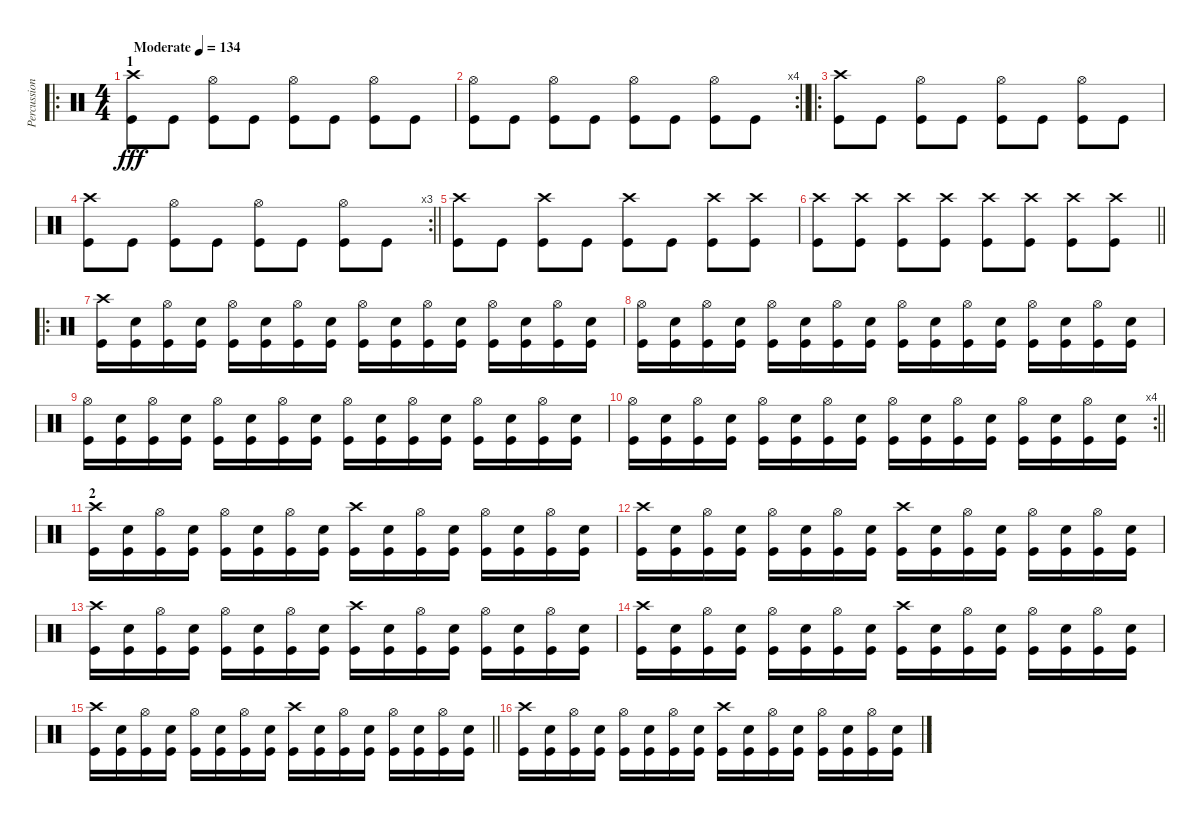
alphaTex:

\track ("Percussion" "Percussion") {instrument percussion}
\staff {score}
\articulation defaults
\ro
\ts (4 4)
\section ("" "1")
\tempo (134 "Moderate")
\clef neutral
\ks c
("Crash high (hit)" "Kick (hit)").8{dy fff} "Kick (hit)".8 ("Hi-Hat (open)" "Kick (hit)").8 "Kick (hit)".8 ("Hi-Hat (open)" "Kick (hit)").8 "Kick (hit)".8 ("Hi-Hat (open)" "Kick (hit)").8 "Kick (hit)".8 |
\rc 4
\barLineRight lightlight
("Hi-Hat (open)" "Kick (hit)").8 "Kick (hit)".8 ("Hi-Hat (open)" "Kick (hit)").8 "Kick (hit)".8 ("Hi-Hat (open)" "Kick (hit)").8 "Kick (hit)".8 ("Hi-Hat (open)" "Kick (hit)").8 "Kick (hit)".8 |
\ro
\section ("" "")
("Crash high (hit)" "Kick (hit)").8 "Kick (hit)".8 ("Hi-Hat (open)" "Kick (hit)").8 "Kick (hit)".8 ("Hi-Hat (open)" "Kick (hit)").8 "Kick (hit)".8 ("Hi-Hat (open)" "Kick (hit)").8 "Kick (hit)".8 |
\rc 3
\barLineRight lightlight
("Crash high (hit)" "Kick (hit)").8 "Kick (hit)".8 ("Hi-Hat (open)" "Kick (hit)").8 "Kick (hit)".8 ("Hi-Hat (open)" "Kick (hit)").8 "Kick (hit)".8 ("Hi-Hat (open)" "Kick (hit)").8 "Kick (hit)".8 |
("Crash high (hit)" "Kick (hit)").8 "Kick (hit)".8 ("Crash high (hit)" "Kick (hit)").8 "Kick (hit)".8 ("Crash high (hit)" "Kick (hit)").8 "Kick (hit)".8 ("Crash high (hit)" "Kick (hit)").8 ("Crash high (hit)" "Kick (hit)").8 |
\barLineRight lightlight
("Crash high (hit)" "Kick (hit)").8 ("Crash high (hit)" "Kick (hit)").8 ("Crash high (hit)" "Kick (hit)").8 ("Crash high (hit)" "Kick (hit)").8 ("Crash high (hit)" "Kick (hit)").8 ("Crash high (hit)" "Kick (hit)").8 ("Crash high (hit)" "Kick (hit)").8 ("Crash high (hit)" "Kick (hit)").8 |
\ro
\section ("" "")
("Crash high (hit)" "Kick (hit)").16 ("Snare (hit) 2" "Kick (hit)").16 ("Hi-Hat (open)" "Kick (hit)").16 ("Snare (hit) 2" "Kick (hit)").16 ("Hi-Hat (open)" "Kick (hit)").16 ("Snare (hit) 2" "Kick (hit)").16 ("Hi-Hat (open)" "Kick (hit)").16 ("Snare (hit) 2" "Kick (hit)").16 ("Hi-Hat (open)" "Kick (hit)").16 ("Snare (hit) 2" "Kick (hit)").16 ("Hi-Hat (open)" "Kick (hit)").16 ("Snare (hit) 2" "Kick (hit)").16 ("Hi-Hat (open)" "Kick (hit)").16 ("Snare (hit) 2" "Kick (hit)").16 ("Hi-Hat (open)" "Kick (hit)").16 ("Snare (hit) 2" "Kick (hit)").16 |
("Hi-Hat (open)" "Kick (hit)").16 ("Snare (hit) 2" "Kick (hit)").16 ("Hi-Hat (open)" "Kick (hit)").16 ("Snare (hit) 2" "Kick (hit)").16 ("Hi-Hat (open)" "Kick (hit)").16 ("Snare (hit) 2" "Kick (hit)").16 ("Hi-Hat (open)" "Kick (hit)").16 ("Snare (hit) 2" "Kick (hit)").16 ("Hi-Hat (open)" "Kick (hit)").16 ("Snare (hit) 2" "Kick (hit)").16 ("Hi-Hat (open)" "Kick (hit)").16 ("Snare (hit) 2" "Kick (hit)").16 ("Hi-Hat (open)" "Kick (hit)").16 ("Snare (hit) 2" "Kick (hit)").16 ("Hi-Hat (open)" "Kick (hit)").16 ("Snare (hit) 2" "Kick (hit)").16 |
("Hi-Hat (open)" "Kick (hit)").16 ("Snare (hit) 2" "Kick (hit)").16 ("Hi-Hat (open)" "Kick (hit)").16 ("Snare (hit) 2" "Kick (hit)").16 ("Hi-Hat (open)" "Kick (hit)").16 ("Snare (hit) 2" "Kick (hit)").16 ("Hi-Hat (open)" "Kick (hit)").16 ("Snare (hit) 2" "Kick (hit)").16 ("Hi-Hat (open)" "Kick (hit)").16 ("Snare (hit) 2" "Kick (hit)").16 ("Hi-Hat (open)" "Kick (hit)").16 ("Snare (hit) 2" "Kick (hit)").16 ("Hi-Hat (open)" "Kick (hit)").16 ("Snare (hit) 2" "Kick (hit)").16 ("Hi-Hat (open)" "Kick (hit)").16 ("Snare (hit) 2" "Kick (hit)").16 |
\rc 4
\barLineRight lightlight
("Hi-Hat (open)" "Kick (hit)").16 ("Snare (hit) 2" "Kick (hit)").16 ("Hi-Hat (open)" "Kick (hit)").16 ("Snare (hit) 2" "Kick (hit)").16 ("Hi-Hat (open)" "Kick (hit)").16 ("Snare (hit) 2" "Kick (hit)").16 ("Hi-Hat (open)" "Kick (hit)").16 ("Snare (hit) 2" "Kick (hit)").16 ("Hi-Hat (open)" "Kick (hit)").16 ("Snare (hit) 2" "Kick (hit)").16 ("Hi-Hat (open)" "Kick (hit)").16 ("Snare (hit) 2" "Kick (hit)").16 ("Hi-Hat (open)" "Kick (hit)").16 ("Snare (hit) 2" "Kick (hit)").16 ("Hi-Hat (open)" "Kick (hit)").16 ("Snare (hit) 2" "Kick (hit)").16 |
\section ("" "2")
("Crash high (hit)" "Kick (hit)").16 ("Snare (hit) 2" "Kick (hit)").16 ("Hi-Hat (open)" "Kick (hit)").16 ("Snare (hit) 2" "Kick (hit)").16 ("Hi-Hat (open)" "Kick (hit)").16 ("Snare (hit) 2" "Kick (hit)").16 ("Hi-Hat (open)" "Kick (hit)").16 ("Snare (hit) 2" "Kick (hit)").16 ("Crash high (hit)" "Kick (hit)").16 ("Snare (hit) 2" "Kick (hit)").16 ("Hi-Hat (open)" "Kick (hit)").16 ("Snare (hit) 2" "Kick (hit)").16 ("Hi-Hat (open)" "Kick (hit)").16 ("Snare (hit) 2" "Kick (hit)").16 ("Hi-Hat (open)" "Kick (hit)").16 ("Snare (hit) 2" "Kick (hit)").16 |
("Crash high (hit)" "Kick (hit)").16 ("Snare (hit) 2" "Kick (hit)").16 ("Hi-Hat (open)" "Kick (hit)").16 ("Snare (hit) 2" "Kick (hit)").16 ("Hi-Hat (open)" "Kick (hit)").16 ("Snare (hit) 2" "Kick (hit)").16 ("Hi-Hat (open)" "Kick (hit)").16 ("Snare (hit) 2" "Kick (hit)").16 ("Crash high (hit)" "Kick (hit)").16 ("Snare (hit) 2" "Kick (hit)").16 ("Hi-Hat (open)" "Kick (hit)").16 ("Snare (hit) 2" "Kick (hit)").16 ("Hi-Hat (open)" "Kick (hit)").16 ("Snare (hit) 2" "Kick (hit)").16 ("Hi-Hat (open)" "Kick (hit)").16 ("Snare (hit) 2" "Kick (hit)").16 |
("Crash high (hit)" "Kick (hit)").16 ("Snare (hit) 2" "Kick (hit)").16 ("Hi-Hat (open)" "Kick (hit)").16 ("Snare (hit) 2" "Kick (hit)").16 ("Hi-Hat (open)" "Kick (hit)").16 ("Snare (hit) 2" "Kick (hit)").16 ("Hi-Hat (open)" "Kick (hit)").16 ("Snare (hit) 2" "Kick (hit)").16 ("Crash high (hit)" "Kick (hit)").16 ("Snare (hit) 2" "Kick (hit)").16 ("Hi-Hat (open)" "Kick (hit)").16 ("Snare (hit) 2" "Kick (hit)").16 ("Hi-Hat (open)" "Kick (hit)").16 ("Snare (hit) 2" "Kick (hit)").16 ("Hi-Hat (open)" "Kick (hit)").16 ("Snare (hit) 2" "Kick (hit)").16 |
("Crash high (hit)" "Kick (hit)").16 ("Snare (hit) 2" "Kick (hit)").16 ("Hi-Hat (open)" "Kick (hit)").16 ("Snare (hit) 2" "Kick (hit)").16 ("Hi-Hat (open)" "Kick (hit)").16 ("Snare (hit) 2" "Kick (hit)").16 ("Hi-Hat (open)" "Kick (hit)").16 ("Snare (hit) 2" "Kick (hit)").16 ("Crash high (hit)" "Kick (hit)").16 ("Snare (hit) 2" "Kick (hit)").16 ("Hi-Hat (open)" "Kick (hit)").16 ("Snare (hit) 2" "Kick (hit)").16 ("Hi-Hat (open)" "Kick (hit)").16 ("Snare (hit) 2" "Kick (hit)").16 ("Hi-Hat (open)" "Kick (hit)").16 ("Snare (hit) 2" "Kick (hit)").16 |
\barLineRight lightlight
("Crash high (hit)" "Kick (hit)").16 ("Snare (hit) 2" "Kick (hit)").16 ("Hi-Hat (open)" "Kick (hit)").16 ("Snare (hit) 2" "Kick (hit)").16 ("Hi-Hat (open)" "Kick (hit)").16 ("Snare (hit) 2" "Kick (hit)").16 ("Hi-Hat (open)" "Kick (hit)").16 ("Snare (hit) 2" "Kick (hit)").16 ("Crash high (hit)" "Kick (hit)").16 ("Snare (hit) 2" "Kick (hit)").16 ("Hi-Hat (open)" "Kick (hit)").16 ("Snare (hit) 2" "Kick (hit)").16 ("Hi-Hat (open)" "Kick (hit)").16 ("Snare (hit) 2" "Kick (hit)").16 ("Hi-Hat (open)" "Kick (hit)").16 ("Snare (hit) 2" "Kick (hit)").16 |
\section ("" "")
("Crash high (hit)" "Kick (hit)").16 ("Snare (hit) 2" "Kick (hit)").16 ("Hi-Hat (open)" "Kick (hit)").16 ("Snare (hit) 2" "Kick (hit)").16 ("Hi-Hat (open)" "Kick (hit)").16 ("Snare (hit) 2" "Kick (hit)").16 ("Hi-Hat (open)" "Kick (hit)").16 ("Snare (hit) 2" "Kick (hit)").16 ("Crash high (hit)" "Kick (hit)").16 ("Snare (hit) 2" "Kick (hit)").16 ("Hi-Hat (open)" "Kick (hit)").16 ("Snare (hit) 2" "Kick (hit)").16 ("Hi-Hat (open)" "Kick (hit)").16 ("Snare (hit) 2" "Kick (hit)").16 ("Hi-Hat (open)" "Kick (hit)").16 ("Snare (hit) 2" "Kick (hit)").16
